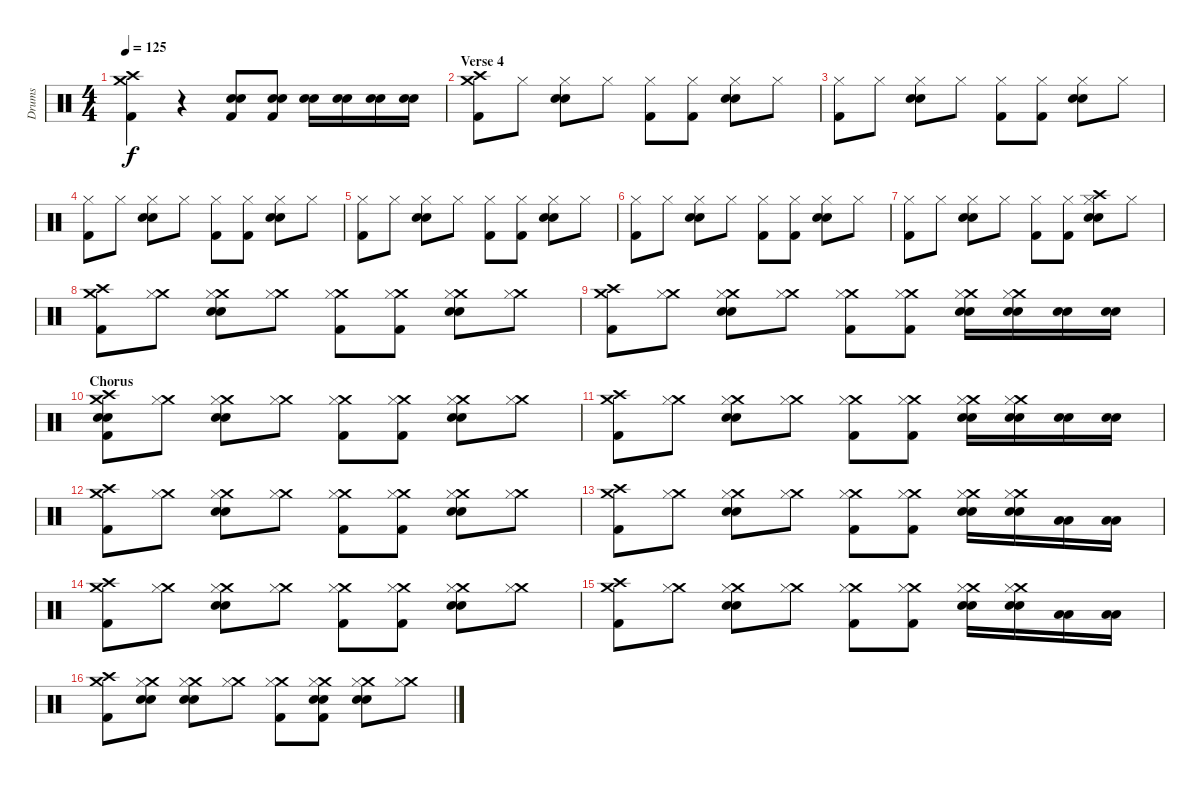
\track ("Drums" "Drums") {instrument percussion}
\staff {score}
\articulation defaults
\ts (4 4)
\tempo 125
\clef neutral
\ks c
("Crash medium (hit)" "Crash high (hit)" "Kick (hit) 2").4{dy f} r.4 ("Snare (hit) 2" "Snare (hit) 2" "Kick (hit) 2").8 ("Snare (hit) 2" "Snare (hit) 2" "Kick (hit) 2").8 ("Snare (hit) 2" "Snare (hit) 2").16 ("Snare (hit) 2" "Snare (hit) 2").16 ("Snare (hit) 2" "Snare (hit) 2").16 ("Snare (hit) 2" "Snare (hit) 2").16 |
\section ("" "Verse 4")
("Crash medium (hit)" "Crash high (hit)" "Kick (hit) 2").8 "Hi-Hat (closed)".8 ("Hi-Hat (closed)" "Snare (hit) 2" "Snare (hit) 2").8 "Hi-Hat (closed)".8 ("Hi-Hat (closed)" "Kick (hit) 2").8 ("Hi-Hat (closed)" "Kick (hit) 2").8 ("Hi-Hat (closed)" "Snare (hit) 2" "Snare (hit) 2").8 "Hi-Hat (closed)".8 |
("Hi-Hat (closed)" "Kick (hit) 2").8 "Hi-Hat (closed)".8 ("Hi-Hat (closed)" "Snare (hit) 2" "Snare (hit) 2").8 "Hi-Hat (closed)".8 ("Hi-Hat (closed)" "Kick (hit) 2").8 ("Hi-Hat (closed)" "Kick (hit) 2").8 ("Hi-Hat (closed)" "Snare (hit) 2" "Snare (hit) 2").8 "Hi-Hat (closed)".8 |
("Hi-Hat (closed)" "Kick (hit) 2").8 "Hi-Hat (closed)".8 ("Hi-Hat (closed)" "Snare (hit) 2" "Snare (hit) 2").8 "Hi-Hat (closed)".8 ("Hi-Hat (closed)" "Kick (hit) 2").8 ("Hi-Hat (closed)" "Kick (hit) 2").8 ("Hi-Hat (closed)" "Snare (hit) 2" "Snare (hit) 2").8 "Hi-Hat (closed)".8 |
("Hi-Hat (closed)" "Kick (hit) 2").8 "Hi-Hat (closed)".8 ("Hi-Hat (closed)" "Snare (hit) 2" "Snare (hit) 2").8 "Hi-Hat (closed)".8 ("Hi-Hat (closed)" "Kick (hit) 2").8 ("Hi-Hat (closed)" "Kick (hit) 2").8 ("Hi-Hat (closed)" "Snare (hit) 2" "Snare (hit) 2").8 "Hi-Hat (closed)".8 |
("Hi-Hat (closed)" "Kick (hit) 2").8 "Hi-Hat (closed)".8 ("Hi-Hat (closed)" "Snare (hit) 2" "Snare (hit) 2").8 "Hi-Hat (closed)".8 ("Hi-Hat (closed)" "Kick (hit) 2").8 ("Hi-Hat (closed)" "Kick (hit) 2").8 ("Hi-Hat (closed)" "Snare (hit) 2" "Snare (hit) 2").8 "Hi-Hat (closed)".8 |
("Hi-Hat (closed)" "Kick (hit) 2").8 "Hi-Hat (closed)".8 ("Hi-Hat (closed)" "Snare (hit) 2" "Snare (hit) 2").8 "Hi-Hat (closed)".8 ("Hi-Hat (closed)" "Kick (hit) 2").8 ("Hi-Hat (closed)" "Kick (hit) 2").8 ("Crash high (hit)" "Hi-Hat (closed)" "Snare (hit) 2" "Snare (hit) 2").8 "Hi-Hat (closed)".8 |
("Crash medium (hit)" "Crash high (hit)" "Kick (hit) 2").8 ("Crash medium (hit)" "Hi-Hat (closed)").8 ("Crash medium (hit)" "Hi-Hat (closed)" "Snare (hit) 2" "Snare (hit) 2").8 ("Crash medium (hit)" "Hi-Hat (closed)").8 ("Crash medium (hit)" "Hi-Hat (closed)" "Kick (hit) 2").8 ("Crash medium (hit)" "Hi-Hat (closed)" "Kick (hit) 2").8 ("Crash medium (hit)" "Hi-Hat (closed)" "Snare (hit) 2" "Snare (hit) 2").8 ("Crash medium (hit)" "Hi-Hat (closed)").8 |
("Crash medium (hit)" "Crash high (hit)" "Kick (hit) 2").8 ("Crash medium (hit)" "Hi-Hat (closed)").8 ("Crash medium (hit)" "Hi-Hat (closed)" "Snare (hit) 2" "Snare (hit) 2").8 ("Crash medium (hit)" "Hi-Hat (closed)").8 ("Crash medium (hit)" "Hi-Hat (closed)" "Kick (hit) 2").8 ("Crash medium (hit)" "Hi-Hat (closed)" "Kick (hit) 2").8 ("Crash medium (hit)" "Hi-Hat (closed)" "Snare (hit) 2" "Snare (hit) 2").16 ("Crash medium (hit)" "Hi-Hat (closed)" "Snare (hit) 2" "Snare (hit) 2").16 ("Snare (hit) 2" "Snare (hit) 2").16 ("Snare (hit) 2" "Snare (hit) 2").16 |
\section ("" "Chorus")
("Crash medium (hit)" "Crash high (hit)" "Snare (hit) 2" "Snare (hit) 2" "Kick (hit) 2").8 ("Crash medium (hit)" "Hi-Hat (closed)").8 ("Crash medium (hit)" "Hi-Hat (closed)" "Snare (hit) 2" "Snare (hit) 2").8 ("Crash medium (hit)" "Hi-Hat (closed)").8 ("Crash medium (hit)" "Hi-Hat (closed)" "Kick (hit) 2").8 ("Crash medium (hit)" "Hi-Hat (closed)" "Kick (hit) 2").8 ("Crash medium (hit)" "Hi-Hat (closed)" "Snare (hit) 2" "Snare (hit) 2").8 ("Crash medium (hit)" "Hi-Hat (closed)").8 |
("Crash medium (hit)" "Crash high (hit)" "Kick (hit) 2").8 ("Crash medium (hit)" "Hi-Hat (closed)").8 ("Crash medium (hit)" "Hi-Hat (closed)" "Snare (hit) 2" "Snare (hit) 2").8 ("Crash medium (hit)" "Hi-Hat (closed)").8 ("Crash medium (hit)" "Hi-Hat (closed)" "Kick (hit) 2").8 ("Crash medium (hit)" "Hi-Hat (closed)" "Kick (hit) 2").8 ("Crash medium (hit)" "Hi-Hat (closed)" "Snare (hit) 2" "Snare (hit) 2").16 ("Crash medium (hit)" "Hi-Hat (closed)" "Snare (hit) 2" "Snare (hit) 2").16 ("Snare (hit) 2" "Snare (hit) 2").16 ("Snare (hit) 2" "Snare (hit) 2").16 |
("Crash medium (hit)" "Crash high (hit)" "Kick (hit) 2").8 ("Crash medium (hit)" "Hi-Hat (closed)").8 ("Crash medium (hit)" "Hi-Hat (closed)" "Snare (hit) 2" "Snare (hit) 2").8 ("Crash medium (hit)" "Hi-Hat (closed)").8 ("Crash medium (hit)" "Hi-Hat (closed)" "Kick (hit) 2").8 ("Crash medium (hit)" "Hi-Hat (closed)" "Kick (hit) 2").8 ("Crash medium (hit)" "Hi-Hat (closed)" "Snare (hit) 2" "Snare (hit) 2").8 ("Crash medium (hit)" "Hi-Hat (closed)").8 |
("Crash medium (hit)" "Crash high (hit)" "Kick (hit) 2").8 ("Crash medium (hit)" "Hi-Hat (closed)").8 ("Crash medium (hit)" "Hi-Hat (closed)" "Snare (hit) 2" "Snare (hit) 2").8 ("Crash medium (hit)" "Hi-Hat (closed)").8 ("Crash medium (hit)" "Hi-Hat (closed)" "Kick (hit) 2").8 ("Crash medium (hit)" "Hi-Hat (closed)" "Kick (hit) 2").8 ("Crash medium (hit)" "Hi-Hat (closed)" "Snare (hit) 2" "Snare (hit) 2").16 ("Crash medium (hit)" "Hi-Hat (closed)" "Snare (hit) 2" "Snare (hit) 2").16 ("Low Floor Tom (hit)" "Low Floor Tom (hit)").16 ("Low Floor Tom (hit)" "Low Floor Tom (hit)").16 |
("Crash medium (hit)" "Crash high (hit)" "Kick (hit) 2").8 ("Crash medium (hit)" "Hi-Hat (closed)").8 ("Crash medium (hit)" "Hi-Hat (closed)" "Snare (hit) 2" "Snare (hit) 2").8 ("Crash medium (hit)" "Hi-Hat (closed)").8 ("Crash medium (hit)" "Hi-Hat (closed)" "Kick (hit) 2").8 ("Crash medium (hit)" "Hi-Hat (closed)" "Kick (hit) 2").8 ("Crash medium (hit)" "Hi-Hat (closed)" "Snare (hit) 2" "Snare (hit) 2").8 ("Crash medium (hit)" "Hi-Hat (closed)").8 |
("Crash medium (hit)" "Crash high (hit)" "Kick (hit) 2").8 ("Crash medium (hit)" "Hi-Hat (closed)").8 ("Crash medium (hit)" "Hi-Hat (closed)" "Snare (hit) 2" "Snare (hit) 2").8 ("Crash medium (hit)" "Hi-Hat (closed)").8 ("Crash medium (hit)" "Hi-Hat (closed)" "Kick (hit) 2").8 ("Crash medium (hit)" "Hi-Hat (closed)" "Kick (hit) 2").8 ("Crash medium (hit)" "Hi-Hat (closed)" "Snare (hit) 2" "Snare (hit) 2").16 ("Crash medium (hit)" "Hi-Hat (closed)" "Snare (hit) 2" "Snare (hit) 2").16 ("Low Floor Tom (hit)" "Low Floor Tom (hit)").16 ("Low Floor Tom (hit)" "Low Floor Tom (hit)").16 |
("Crash medium (hit)" "Crash high (hit)" "Kick (hit) 2").8 ("Crash medium (hit)" "Hi-Hat (closed)" "Snare (hit) 2" "Snare (hit) 2").8 ("Crash medium (hit)" "Hi-Hat (closed)" "Snare (hit) 2" "Snare (hit) 2").8 ("Crash medium (hit)" "Hi-Hat (closed)").8 ("Crash medium (hit)" "Hi-Hat (closed)" "Kick (hit) 2").8 ("Crash medium (hit)" "Hi-Hat (closed)" "Snare (hit) 2" "Snare (hit) 2" "Kick (hit) 2").8 ("Crash medium (hit)" "Hi-Hat (closed)" "Snare (hit) 2" "Snare (hit) 2").8 ("Crash medium (hit)" "Hi-Hat (closed)").8
